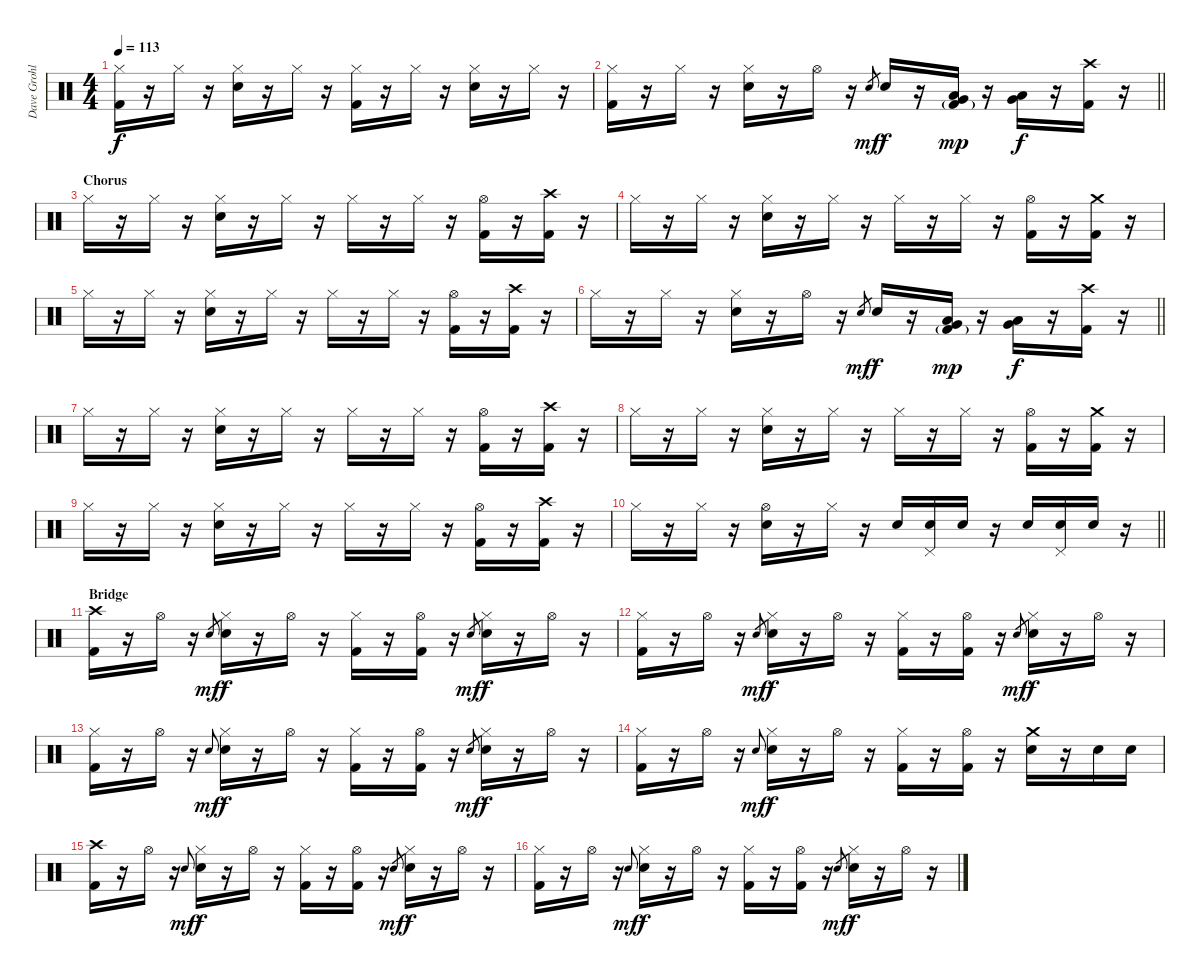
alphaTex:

\track ("Dave Grohl" "Dave Grohl") {instrument percussion}
\staff {score}
\articulation defaults
\ts (4 4)
\tempo 113
\clef neutral
\ks c
("Hi-Hat (closed)" "Kick (hit) 2").16{dy f} r.16 "Hi-Hat (closed)".16 r.16 ("Hi-Hat (closed)" "Electric Snare (hit)").16 r.16 "Hi-Hat (closed)".16 r.16 ("Hi-Hat (closed)" "Kick (hit) 2").16 r.16 "Hi-Hat (closed)".16 r.16 ("Hi-Hat (closed)" "Electric Snare (hit)").16 r.16 "Hi-Hat (closed)".16 r.16 |
\barLineRight lightlight
("Hi-Hat (closed)" "Kick (hit) 2").16 r.16 "Hi-Hat (closed)".16 r.16 ("Hi-Hat (closed)" "Electric Snare (hit)").16 r.16 "Hi-Hat (open)".16 r.16 "Electric Snare (hit)".8{gr dy mf} "Electric Snare (hit)".16{dy f} r.16 ("Very Low Tom (hit)" "Low Tom (hit)" "Kick (hit) 2"{g}).16{dy mp} r.16 ("Very Low Tom (hit)" "Low Tom (hit)").16{dy f} r.16 ("Crash high (hit)" "Kick (hit) 2").16 r.16 |
\section ("" "Chorus")
"Hi-Hat (closed)".16 r.16 "Hi-Hat (closed)".16 r.16 ("Hi-Hat (closed)" "Electric Snare (hit)").16 r.16 "Hi-Hat (closed)".16 r.16 "Hi-Hat (closed)".16 r.16 "Hi-Hat (closed)".16 r.16 ("Hi-Hat (open)" "Kick (hit) 2").16 r.16 ("Crash high (hit)" "Kick (hit) 2").16 r.16 |
"Hi-Hat (closed)".16 r.16 "Hi-Hat (closed)".16 r.16 ("Hi-Hat (closed)" "Electric Snare (hit)").16 r.16 "Hi-Hat (closed)".16 r.16 "Hi-Hat (closed)".16 r.16 "Hi-Hat (closed)".16 r.16 ("Hi-Hat (open)" "Kick (hit) 2").16 r.16 ("Crash medium (hit)" "Kick (hit) 2").16 r.16 |
"Hi-Hat (closed)".16 r.16 "Hi-Hat (closed)".16 r.16 ("Hi-Hat (closed)" "Electric Snare (hit)").16 r.16 "Hi-Hat (closed)".16 r.16 "Hi-Hat (closed)".16 r.16 "Hi-Hat (closed)".16 r.16 ("Hi-Hat (open)" "Kick (hit) 2").16 r.16 ("Crash high (hit)" "Kick (hit) 2").16 r.16 |
\barLineRight lightlight "Hi-Hat (closed)".16
r.16 "Hi-Hat (closed)".16 r.16 ("Hi-Hat (closed)" "Electric Snare (hit)").16 r.16 "Hi-Hat (open)".16 r.16 "Electric Snare (hit)".8{gr dy mf} "Electric Snare (hit)".16{dy f} r.16 ("Very Low Tom (hit)" "Low Tom (hit)" "Kick (hit) 2"{g}).16{dy mp} r.16 ("Very Low Tom (hit)" "Low Tom (hit)").16{dy f} r.16 ("Crash high (hit)" "Kick (hit) 2").16 r.16 |
"Hi-Hat (closed)".16 r.16 "Hi-Hat (closed)".16 r.16 ("Hi-Hat (closed)" "Electric Snare (hit)").16 r.16 "Hi-Hat (closed)".16 r.16 "Hi-Hat (closed)".16 r.16 "Hi-Hat (closed)".16 r.16 ("Hi-Hat (open)" "Kick (hit) 2").16 r.16 ("Crash high (hit)" "Kick (hit) 2").16 r.16 |
"Hi-Hat (closed)".16 r.16 "Hi-Hat (closed)".16 r.16 ("Hi-Hat (closed)" "Electric Snare (hit)").16 r.16 "Hi-Hat (closed)".16 r.16 "Hi-Hat (closed)".16 r.16 "Hi-Hat (closed)".16 r.16 ("Hi-Hat (open)" "Kick (hit) 2").16 r.16 ("Crash medium (hit)" "Kick (hit) 2").16 r.16 |
"Hi-Hat (closed)".16 r.16 "Hi-Hat (closed)".16 r.16 ("Hi-Hat (closed)" "Electric Snare (hit)").16 r.16 "Hi-Hat (closed)".16 r.16 "Hi-Hat (closed)".16 r.16 "Hi-Hat (closed)".16 r.16 ("Hi-Hat (open)" "Kick (hit) 2").16 r.16 ("Crash high (hit)" "Kick (hit) 2").16 r.16 |
\barLineRight lightlight "Hi-Hat (closed)".16
r.16 "Hi-Hat (closed)".16 r.16 ("Hi-Hat (open)" "Electric Snare (hit)").16 r.16 "Hi-Hat (closed)".16 r.16 "Electric Snare (hit)".16 ("Pedal Hi-Hat (hit)" "Electric Snare (hit)").16 "Electric Snare (hit)".16 r.16 "Electric Snare (hit)".16 ("Pedal Hi-Hat (hit)" "Electric Snare (hit)").16 "Electric Snare (hit)".16 r.16 |
\section ("" "Bridge")
("Crash high (hit)" "Kick (hit) 2").16 r.16 "Hi-Hat (open)".16 r.16 "Electric Snare (hit)".8{gr dy mf} ("Hi-Hat (closed)" "Electric Snare (hit)").16{dy f} r.16 "Hi-Hat (open)".16 r.16 ("Hi-Hat (closed)" "Kick (hit) 2").16 r.16 ("Hi-Hat (open)" "Kick (hit) 2").16 r.16 "Electric Snare (hit)".8{gr dy mf} ("Hi-Hat (closed)" "Electric Snare (hit)").16{dy f} r.16 "Hi-Hat (open)".16 r.16 |
("Hi-Hat (closed)" "Kick (hit) 2").16 r.16 "Hi-Hat (open)".16 r.16 "Electric Snare (hit)".8{gr dy mf} ("Hi-Hat (closed)" "Electric Snare (hit)").16{dy f} r.16 "Hi-Hat (open)".16 r.16 ("Hi-Hat (closed)" "Kick (hit) 2").16 r.16 ("Hi-Hat (open)" "Kick (hit) 2").16 r.16 "Electric Snare (hit)".8{gr dy mf} ("Hi-Hat (closed)" "Electric Snare (hit)").16{dy f} r.16 "Hi-Hat (open)".16 r.16 |
("Hi-Hat (closed)" "Kick (hit) 2").16 r.16 "Hi-Hat (open)".16 r.16 "Electric Snare (hit)".8{gr onbeat dy mf} ("Hi-Hat (closed)" "Electric Snare (hit)").16{dy f} r.16 "Hi-Hat (open)".16 r.16 ("Hi-Hat (closed)" "Kick (hit) 2").16 r.16 ("Hi-Hat (open)" "Kick (hit) 2").16 r.16 "Electric Snare (hit)".8{gr dy mf} ("Hi-Hat (closed)" "Electric Snare (hit)").16{dy f} r.16 "Hi-Hat (open)".16 r.16 |
("Hi-Hat (closed)" "Kick (hit) 2").16 r.16 "Hi-Hat (open)".16 r.16 "Electric Snare (hit)".8{gr onbeat dy mf} ("Hi-Hat (closed)" "Electric Snare (hit)").16{dy f} r.16 "Hi-Hat (open)".16 r.16 ("Hi-Hat (closed)" "Kick (hit) 2").16 r.16 ("Hi-Hat (open)" "Kick (hit) 2").16 r.16 ("Crash medium (hit)" "Electric Snare (hit)").16 r.16 "Electric Snare (hit)".16 "Electric Snare (hit)".16 |
("Crash high (hit)" "Kick (hit) 2").16 r.16 "Hi-Hat (open)".16 r.16 "Electric Snare (hit)".8{gr onbeat dy mf} ("Hi-Hat (closed)" "Electric Snare (hit)").16{dy f} r.16 "Hi-Hat (open)".16 r.16 ("Hi-Hat (closed)" "Kick (hit) 2").16 r.16 ("Hi-Hat (open)" "Kick (hit) 2").16 r.16 "Electric Snare (hit)".8{gr dy mf} ("Hi-Hat (closed)" "Electric Snare (hit)").16{dy f} r.16 "Hi-Hat (open)".16 r.16 |
("Hi-Hat (closed)" "Kick (hit) 2").16 r.16 "Hi-Hat (open)".16 r.16 "Electric Snare (hit)".8{gr onbeat dy mf} ("Hi-Hat (closed)" "Electric Snare (hit)").16{dy f} r.16 "Hi-Hat (open)".16 r.16 ("Hi-Hat (closed)" "Kick (hit) 2").16 r.16 ("Hi-Hat (open)" "Kick (hit) 2").16 r.16 "Electric Snare (hit)".8{gr dy mf} ("Hi-Hat (closed)" "Electric Snare (hit)").16{dy f} r.16 "Hi-Hat (open)".16 r.16
